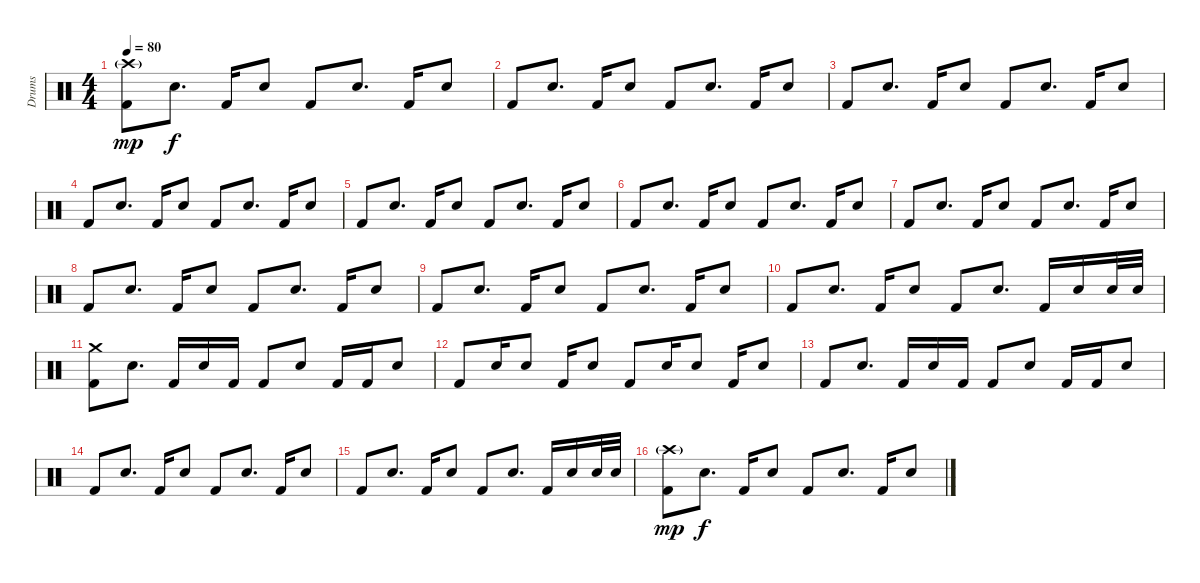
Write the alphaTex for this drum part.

\track ("Drums" "Drums") {instrument percussion}
\staff {score}
\articulation defaults
\ts (4 4)
\tempo 80
\clef neutral
\ks c
("Kick (hit) 2" "Crash high (hit)"{g}).8{dy mp} "Snare (hit) 2".8{d dy f} "Kick (hit) 2".16 "Snare (hit) 2".8 "Kick (hit) 2".8 "Snare (hit) 2".8{d} "Kick (hit) 2".16 "Snare (hit) 2".8 |
"Kick (hit) 2".8 "Snare (hit) 2".8{d} "Kick (hit) 2".16 "Snare (hit) 2".8 "Kick (hit) 2".8 "Snare (hit) 2".8{d} "Kick (hit) 2".16 "Snare (hit) 2".8 |
"Kick (hit) 2".8 "Snare (hit) 2".8{d} "Kick (hit) 2".16 "Snare (hit) 2".8 "Kick (hit) 2".8 "Snare (hit) 2".8{d} "Kick (hit) 2".16 "Snare (hit) 2".8 |
"Kick (hit) 2".8 "Snare (hit) 2".8{d} "Kick (hit) 2".16 "Snare (hit) 2".8 "Kick (hit) 2".8 "Snare (hit) 2".8{d} "Kick (hit) 2".16 "Snare (hit) 2".8 |
"Kick (hit) 2".8 "Snare (hit) 2".8{d} "Kick (hit) 2".16 "Snare (hit) 2".8 "Kick (hit) 2".8 "Snare (hit) 2".8{d} "Kick (hit) 2".16 "Snare (hit) 2".8 |
"Kick (hit) 2".8 "Snare (hit) 2".8{d} "Kick (hit) 2".16 "Snare (hit) 2".8 "Kick (hit) 2".8 "Snare (hit) 2".8{d} "Kick (hit) 2".16 "Snare (hit) 2".8 |
"Kick (hit) 2".8 "Snare (hit) 2".8{d} "Kick (hit) 2".16 "Snare (hit) 2".8 "Kick (hit) 2".8 "Snare (hit) 2".8{d} "Kick (hit) 2".16 "Snare (hit) 2".8 |
"Kick (hit) 2".8 "Snare (hit) 2".8{d} "Kick (hit) 2".16 "Snare (hit) 2".8 "Kick (hit) 2".8 "Snare (hit) 2".8{d} "Kick (hit) 2".16 "Snare (hit) 2".8 |
"Kick (hit) 2".8 "Snare (hit) 2".8{d} "Kick (hit) 2".16 "Snare (hit) 2".8 "Kick (hit) 2".8 "Snare (hit) 2".8{d} "Kick (hit) 2".16 "Snare (hit) 2".8 |
"Kick (hit) 2".8 "Snare (hit) 2".8{d} "Kick (hit) 2".16 "Snare (hit) 2".8 "Kick (hit) 2".8 "Snare (hit) 2".8{d} "Kick (hit) 2".16 "Snare (hit) 2".16 "Snare (hit) 2".32 "Snare (hit) 2".32 |
("Kick (hit) 2" "Crash medium (hit)").8 "Snare (hit) 2".8{d} "Kick (hit) 2".16 "Snare (hit) 2".16 "Kick (hit) 2".16 "Kick (hit) 2".8 "Snare (hit) 2".8 "Kick (hit) 2".16 "Kick (hit) 2".16 "Snare (hit) 2".8 |
"Kick (hit) 2".8 "Snare (hit) 2".16 "Snare (hit) 2".8 "Kick (hit) 2".16 "Snare (hit) 2".8 "Kick (hit) 2".8 "Snare (hit) 2".16 "Snare (hit) 2".8 "Kick (hit) 2".16 "Snare (hit) 2".8 |
"Kick (hit) 2".8 "Snare (hit) 2".8{d} "Kick (hit) 2".16 "Snare (hit) 2".16 "Kick (hit) 2".16 "Kick (hit) 2".8 "Snare (hit) 2".8 "Kick (hit) 2".16 "Kick (hit) 2".16 "Snare (hit) 2".8 |
"Kick (hit) 2".8 "Snare (hit) 2".8{d} "Kick (hit) 2".16 "Snare (hit) 2".8 "Kick (hit) 2".8 "Snare (hit) 2".8{d} "Kick (hit) 2".16 "Snare (hit) 2".8 |
"Kick (hit) 2".8 "Snare (hit) 2".8{d} "Kick (hit) 2".16 "Snare (hit) 2".8 "Kick (hit) 2".8 "Snare (hit) 2".8{d} "Kick (hit) 2".16 "Snare (hit) 2".16 "Snare (hit) 2".32 "Snare (hit) 2".32 |
("Kick (hit) 2" "Crash high (hit)"{g}).8{dy mp} "Snare (hit) 2".8{d dy f} "Kick (hit) 2".16 "Snare (hit) 2".8 "Kick (hit) 2".8 "Snare (hit) 2".8{d} "Kick (hit) 2".16 "Snare (hit) 2".8
